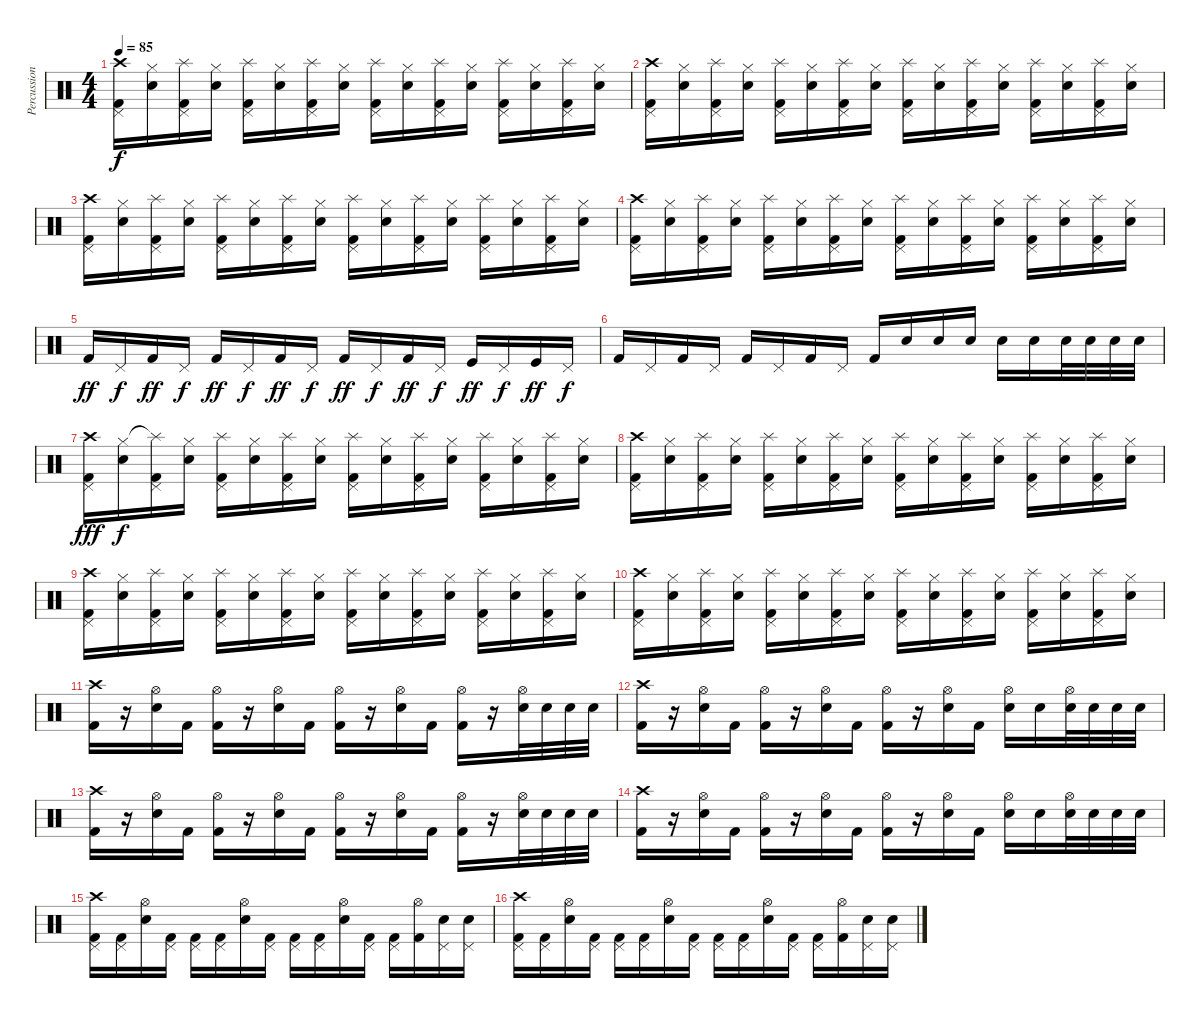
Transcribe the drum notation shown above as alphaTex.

\track ("Percussion" "Percussion") {instrument percussion}
\staff {score}
\articulation defaults
\ts (4 4)
\tempo 85
\clef neutral
\ks c
("Crash high (hit)" "Pedal Hi-Hat (hit)" "Kick (hit) 2").16{dy f} ("Hi-Hat (closed)" "Electric Snare (hit)").16 ("Splash (hit)" "Pedal Hi-Hat (hit)" "Kick (hit) 2").16 ("Hi-Hat (closed)" "Electric Snare (hit)").16 ("Splash (hit)" "Pedal Hi-Hat (hit)" "Kick (hit) 2").16 ("Hi-Hat (closed)" "Electric Snare (hit)").16 ("Splash (hit)" "Pedal Hi-Hat (hit)" "Kick (hit) 2").16 ("Hi-Hat (closed)" "Electric Snare (hit)").16 ("Splash (hit)" "Pedal Hi-Hat (hit)" "Kick (hit) 2").16 ("Hi-Hat (closed)" "Electric Snare (hit)").16 ("Splash (hit)" "Pedal Hi-Hat (hit)" "Kick (hit) 2").16 ("Hi-Hat (closed)" "Electric Snare (hit)").16 ("Splash (hit)" "Pedal Hi-Hat (hit)" "Kick (hit) 2").16 ("Hi-Hat (closed)" "Electric Snare (hit)").16 ("Splash (hit)" "Pedal Hi-Hat (hit)" "Kick (hit) 2").16 ("Hi-Hat (closed)" "Electric Snare (hit)").16 |
("Crash high (hit)" "Pedal Hi-Hat (hit)" "Kick (hit) 2").16 ("Hi-Hat (closed)" "Electric Snare (hit)").16 ("Splash (hit)" "Pedal Hi-Hat (hit)" "Kick (hit) 2").16 ("Hi-Hat (closed)" "Electric Snare (hit)").16 ("Splash (hit)" "Pedal Hi-Hat (hit)" "Kick (hit) 2").16 ("Hi-Hat (closed)" "Electric Snare (hit)").16 ("Splash (hit)" "Pedal Hi-Hat (hit)" "Kick (hit) 2").16 ("Hi-Hat (closed)" "Electric Snare (hit)").16 ("Splash (hit)" "Pedal Hi-Hat (hit)" "Kick (hit) 2").16 ("Hi-Hat (closed)" "Electric Snare (hit)").16 ("Splash (hit)" "Pedal Hi-Hat (hit)" "Kick (hit) 2").16 ("Hi-Hat (closed)" "Electric Snare (hit)").16 ("Splash (hit)" "Pedal Hi-Hat (hit)" "Kick (hit) 2").16 ("Hi-Hat (closed)" "Electric Snare (hit)").16 ("Splash (hit)" "Pedal Hi-Hat (hit)" "Kick (hit) 2").16 ("Hi-Hat (closed)" "Electric Snare (hit)").16 |
("Crash high (hit)" "Pedal Hi-Hat (hit)" "Kick (hit) 2").16 ("Hi-Hat (closed)" "Electric Snare (hit)").16 ("Splash (hit)" "Pedal Hi-Hat (hit)" "Kick (hit) 2").16 ("Hi-Hat (closed)" "Electric Snare (hit)").16 ("Splash (hit)" "Pedal Hi-Hat (hit)" "Kick (hit) 2").16 ("Hi-Hat (closed)" "Electric Snare (hit)").16 ("Splash (hit)" "Pedal Hi-Hat (hit)" "Kick (hit) 2").16 ("Hi-Hat (closed)" "Electric Snare (hit)").16 ("Splash (hit)" "Pedal Hi-Hat (hit)" "Kick (hit) 2").16 ("Hi-Hat (closed)" "Electric Snare (hit)").16 ("Splash (hit)" "Pedal Hi-Hat (hit)" "Kick (hit) 2").16 ("Hi-Hat (closed)" "Electric Snare (hit)").16 ("Splash (hit)" "Pedal Hi-Hat (hit)" "Kick (hit) 2").16 ("Hi-Hat (closed)" "Electric Snare (hit)").16 ("Splash (hit)" "Pedal Hi-Hat (hit)" "Kick (hit) 2").16 ("Hi-Hat (closed)" "Electric Snare (hit)").16 |
("Crash high (hit)" "Pedal Hi-Hat (hit)" "Kick (hit) 2").16 ("Hi-Hat (closed)" "Electric Snare (hit)").16 ("Splash (hit)" "Pedal Hi-Hat (hit)" "Kick (hit) 2").16 ("Hi-Hat (closed)" "Electric Snare (hit)").16 ("Splash (hit)" "Pedal Hi-Hat (hit)" "Kick (hit) 2").16 ("Hi-Hat (closed)" "Electric Snare (hit)").16 ("Splash (hit)" "Pedal Hi-Hat (hit)" "Kick (hit) 2").16 ("Hi-Hat (closed)" "Electric Snare (hit)").16 ("Splash (hit)" "Pedal Hi-Hat (hit)" "Kick (hit) 2").16 ("Hi-Hat (closed)" "Electric Snare (hit)").16 ("Splash (hit)" "Pedal Hi-Hat (hit)" "Kick (hit) 2").16 ("Hi-Hat (closed)" "Electric Snare (hit)").16 ("Splash (hit)" "Pedal Hi-Hat (hit)" "Kick (hit) 2").16 ("Hi-Hat (closed)" "Electric Snare (hit)").16 ("Splash (hit)" "Pedal Hi-Hat (hit)" "Kick (hit) 2").16 ("Hi-Hat (closed)" "Electric Snare (hit)").16 |
"Kick (hit) 2".16{dy ff} "Pedal Hi-Hat (hit)".16{dy f} "Kick (hit) 2".16{dy ff} "Pedal Hi-Hat (hit)".16{dy f} "Kick (hit) 2".16{dy ff} "Pedal Hi-Hat (hit)".16{dy f} "Kick (hit) 2".16{dy ff} "Pedal Hi-Hat (hit)".16{dy f} "Kick (hit) 2".16{dy ff} "Pedal Hi-Hat (hit)".16{dy f} "Kick (hit) 2".16{dy ff} "Pedal Hi-Hat (hit)".16{dy f} "Kick (hit)".16{dy ff} "Pedal Hi-Hat (hit)".16{dy f} "Kick (hit)".16{dy ff} "Pedal Hi-Hat (hit)".16{dy f} |
"Kick (hit) 2".16 "Pedal Hi-Hat (hit)".16 "Kick (hit) 2".16 "Pedal Hi-Hat (hit)".16 "Kick (hit) 2".16 "Pedal Hi-Hat (hit)".16 "Kick (hit) 2".16 "Pedal Hi-Hat (hit)".16 "Kick (hit) 2".16 "Electric Snare (hit)".16 "Electric Snare (hit)".16 "Electric Snare (hit)".16 "Electric Snare (hit)".16 "Electric Snare (hit)".16 "Electric Snare (hit)".32 "Electric Snare (hit)".32 "Electric Snare (hit)".32 "Electric Snare (hit)".32 |
("Crash high (hit)" "Pedal Hi-Hat (hit)" "Kick (hit) 2").16{dy fff} ("Hi-Hat (closed)" "Electric Snare (hit)").16{dy f} ("Splash (hit)"{t} "Pedal Hi-Hat (hit)" "Kick (hit) 2").16 ("Hi-Hat (closed)" "Electric Snare (hit)").16 ("Splash (hit)" "Pedal Hi-Hat (hit)" "Kick (hit) 2").16 ("Hi-Hat (closed)" "Electric Snare (hit)").16 ("Splash (hit)" "Pedal Hi-Hat (hit)" "Kick (hit) 2").16 ("Hi-Hat (closed)" "Electric Snare (hit)").16 ("Splash (hit)" "Pedal Hi-Hat (hit)" "Kick (hit) 2").16 ("Hi-Hat (closed)" "Electric Snare (hit)").16 ("Splash (hit)" "Pedal Hi-Hat (hit)" "Kick (hit) 2").16 ("Hi-Hat (closed)" "Electric Snare (hit)").16 ("Splash (hit)" "Pedal Hi-Hat (hit)" "Kick (hit) 2").16 ("Hi-Hat (closed)" "Electric Snare (hit)").16 ("Splash (hit)" "Pedal Hi-Hat (hit)" "Kick (hit) 2").16 ("Hi-Hat (closed)" "Electric Snare (hit)").16 |
("Crash high (hit)" "Pedal Hi-Hat (hit)" "Kick (hit) 2").16 ("Hi-Hat (closed)" "Electric Snare (hit)").16 ("Splash (hit)" "Pedal Hi-Hat (hit)" "Kick (hit) 2").16 ("Hi-Hat (closed)" "Electric Snare (hit)").16 ("Splash (hit)" "Pedal Hi-Hat (hit)" "Kick (hit) 2").16 ("Hi-Hat (closed)" "Electric Snare (hit)").16 ("Splash (hit)" "Pedal Hi-Hat (hit)" "Kick (hit) 2").16 ("Hi-Hat (closed)" "Electric Snare (hit)").16 ("Splash (hit)" "Pedal Hi-Hat (hit)" "Kick (hit) 2").16 ("Hi-Hat (closed)" "Electric Snare (hit)").16 ("Splash (hit)" "Pedal Hi-Hat (hit)" "Kick (hit) 2").16 ("Hi-Hat (closed)" "Electric Snare (hit)").16 ("Splash (hit)" "Pedal Hi-Hat (hit)" "Kick (hit) 2").16 ("Hi-Hat (closed)" "Electric Snare (hit)").16 ("Splash (hit)" "Pedal Hi-Hat (hit)" "Kick (hit) 2").16 ("Hi-Hat (closed)" "Electric Snare (hit)").16 |
("Crash high (hit)" "Pedal Hi-Hat (hit)" "Kick (hit) 2").16 ("Hi-Hat (closed)" "Electric Snare (hit)").16 ("Splash (hit)" "Pedal Hi-Hat (hit)" "Kick (hit) 2").16 ("Hi-Hat (closed)" "Electric Snare (hit)").16 ("Splash (hit)" "Pedal Hi-Hat (hit)" "Kick (hit) 2").16 ("Hi-Hat (closed)" "Electric Snare (hit)").16 ("Splash (hit)" "Pedal Hi-Hat (hit)" "Kick (hit) 2").16 ("Hi-Hat (closed)" "Electric Snare (hit)").16 ("Splash (hit)" "Pedal Hi-Hat (hit)" "Kick (hit) 2").16 ("Hi-Hat (closed)" "Electric Snare (hit)").16 ("Splash (hit)" "Pedal Hi-Hat (hit)" "Kick (hit) 2").16 ("Hi-Hat (closed)" "Electric Snare (hit)").16 ("Splash (hit)" "Pedal Hi-Hat (hit)" "Kick (hit) 2").16 ("Hi-Hat (closed)" "Electric Snare (hit)").16 ("Splash (hit)" "Pedal Hi-Hat (hit)" "Kick (hit) 2").16 ("Hi-Hat (closed)" "Electric Snare (hit)").16 |
("Crash high (hit)" "Pedal Hi-Hat (hit)" "Kick (hit) 2").16 ("Hi-Hat (closed)" "Electric Snare (hit)").16 ("Splash (hit)" "Pedal Hi-Hat (hit)" "Kick (hit) 2").16 ("Hi-Hat (closed)" "Electric Snare (hit)").16 ("Splash (hit)" "Pedal Hi-Hat (hit)" "Kick (hit) 2").16 ("Hi-Hat (closed)" "Electric Snare (hit)").16 ("Splash (hit)" "Pedal Hi-Hat (hit)" "Kick (hit) 2").16 ("Hi-Hat (closed)" "Electric Snare (hit)").16 ("Splash (hit)" "Pedal Hi-Hat (hit)" "Kick (hit) 2").16 ("Hi-Hat (closed)" "Electric Snare (hit)").16 ("Splash (hit)" "Pedal Hi-Hat (hit)" "Kick (hit) 2").16 ("Hi-Hat (closed)" "Electric Snare (hit)").16 ("Splash (hit)" "Pedal Hi-Hat (hit)" "Kick (hit) 2").16 ("Hi-Hat (closed)" "Electric Snare (hit)").16 ("Splash (hit)" "Pedal Hi-Hat (hit)" "Kick (hit) 2").16 ("Hi-Hat (closed)" "Electric Snare (hit)").16 |
("Crash high (hit)" "Kick (hit) 2").16 r.16 ("Hi-Hat (open)" "Electric Snare (hit)").16 "Kick (hit) 2".16 ("Hi-Hat (open)" "Kick (hit) 2").16 r.16 ("Hi-Hat (open)" "Electric Snare (hit)").16 "Kick (hit) 2".16 ("Hi-Hat (open)" "Kick (hit) 2").16 r.16 ("Hi-Hat (open)" "Electric Snare (hit)").16 "Kick (hit) 2".16 ("Hi-Hat (open)" "Kick (hit) 2").16 r.16 ("Hi-Hat (open)" "Electric Snare (hit)").32 "Electric Snare (hit)".32 "Electric Snare (hit)".32 "Electric Snare (hit)".32 |
("Crash high (hit)" "Kick (hit) 2").16 r.16 ("Hi-Hat (open)" "Electric Snare (hit)").16 "Kick (hit) 2".16 ("Hi-Hat (open)" "Kick (hit) 2").16 r.16 ("Hi-Hat (open)" "Electric Snare (hit)").16 "Kick (hit) 2".16 ("Hi-Hat (open)" "Kick (hit) 2").16 r.16 ("Hi-Hat (open)" "Electric Snare (hit)").16 "Kick (hit) 2".16 ("Hi-Hat (open)" "Electric Snare (hit)").16 "Electric Snare (hit)".16 ("Hi-Hat (open)" "Electric Snare (hit)").32 "Electric Snare (hit)".32 "Electric Snare (hit)".32 "Electric Snare (hit)".32 |
("Crash high (hit)" "Kick (hit) 2").16 r.16 ("Hi-Hat (open)" "Electric Snare (hit)").16 "Kick (hit) 2".16 ("Hi-Hat (open)" "Kick (hit) 2").16 r.16 ("Hi-Hat (open)" "Electric Snare (hit)").16 "Kick (hit) 2".16 ("Hi-Hat (open)" "Kick (hit) 2").16 r.16 ("Hi-Hat (open)" "Electric Snare (hit)").16 "Kick (hit) 2".16 ("Hi-Hat (open)" "Kick (hit) 2").16 r.16 ("Hi-Hat (open)" "Electric Snare (hit)").32 "Electric Snare (hit)".32 "Electric Snare (hit)".32 "Electric Snare (hit)".32 |
("Crash high (hit)" "Kick (hit) 2").16 r.16 ("Hi-Hat (open)" "Electric Snare (hit)").16 "Kick (hit) 2".16 ("Hi-Hat (open)" "Kick (hit) 2").16 r.16 ("Hi-Hat (open)" "Electric Snare (hit)").16 "Kick (hit) 2".16 ("Hi-Hat (open)" "Kick (hit) 2").16 r.16 ("Hi-Hat (open)" "Electric Snare (hit)").16 "Kick (hit) 2".16 ("Hi-Hat (open)" "Electric Snare (hit)").16 "Electric Snare (hit)".16 ("Hi-Hat (open)" "Electric Snare (hit)").32 "Electric Snare (hit)".32 "Electric Snare (hit)".32 "Electric Snare (hit)".32 |
("Crash high (hit)" "Pedal Hi-Hat (hit)" "Kick (hit) 2").16 ("Pedal Hi-Hat (hit)" "Kick (hit) 2").16 ("Hi-Hat (open)" "Electric Snare (hit)").16 ("Pedal Hi-Hat (hit)" "Kick (hit) 2").16 ("Pedal Hi-Hat (hit)" "Kick (hit) 2").16 ("Pedal Hi-Hat (hit)" "Kick (hit) 2").16 ("Hi-Hat (open)" "Electric Snare (hit)").16 ("Pedal Hi-Hat (hit)" "Kick (hit) 2").16 ("Pedal Hi-Hat (hit)" "Kick (hit) 2").16 ("Pedal Hi-Hat (hit)" "Kick (hit) 2").16 ("Hi-Hat (open)" "Electric Snare (hit)").16 ("Pedal Hi-Hat (hit)" "Kick (hit) 2").16 ("Pedal Hi-Hat (hit)" "Kick (hit) 2").16 ("Hi-Hat (open)" "Kick (hit) 2").16 ("Pedal Hi-Hat (hit)" "Electric Snare (hit)").16 ("Pedal Hi-Hat (hit)" "Electric Snare (hit)").16 |
("Crash high (hit)" "Pedal Hi-Hat (hit)" "Kick (hit) 2").16 ("Pedal Hi-Hat (hit)" "Kick (hit) 2").16 ("Hi-Hat (open)" "Electric Snare (hit)").16 ("Pedal Hi-Hat (hit)" "Kick (hit) 2").16 ("Pedal Hi-Hat (hit)" "Kick (hit) 2").16 ("Pedal Hi-Hat (hit)" "Kick (hit) 2").16 ("Hi-Hat (open)" "Electric Snare (hit)").16 ("Pedal Hi-Hat (hit)" "Kick (hit) 2").16 ("Pedal Hi-Hat (hit)" "Kick (hit) 2").16 ("Pedal Hi-Hat (hit)" "Kick (hit) 2").16 ("Hi-Hat (open)" "Electric Snare (hit)").16 ("Pedal Hi-Hat (hit)" "Kick (hit) 2").16 ("Pedal Hi-Hat (hit)" "Kick (hit) 2").16 ("Hi-Hat (open)" "Kick (hit) 2").16 ("Pedal Hi-Hat (hit)" "Electric Snare (hit)").16 ("Pedal Hi-Hat (hit)" "Electric Snare (hit)").16
